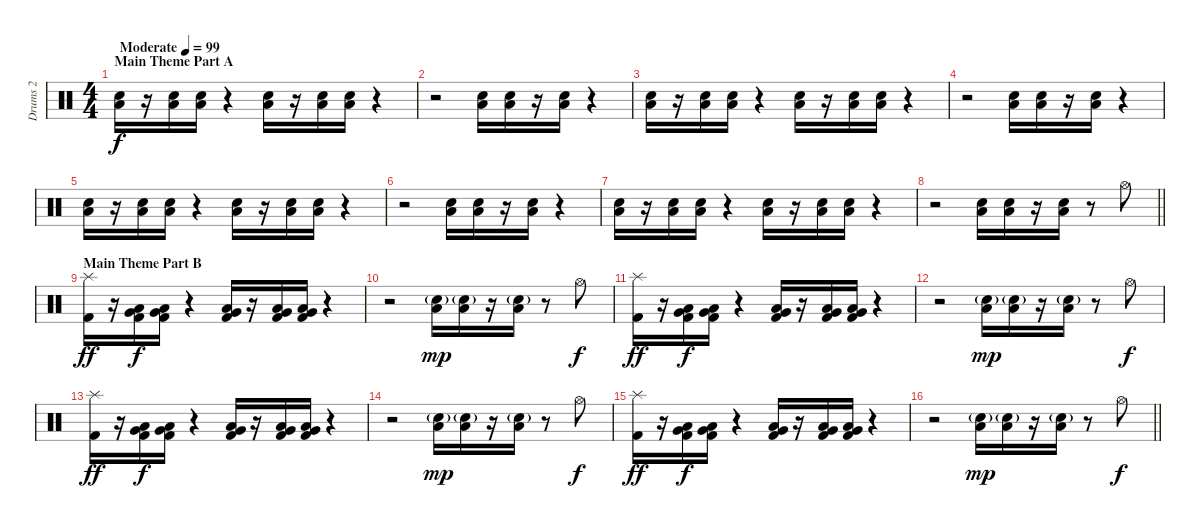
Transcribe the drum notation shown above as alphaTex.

\track ("Drums 2" "Drums 2") {instrument percussion}
\staff {score}
\articulation defaults
\ts (4 4)
\section ("" "Main Theme Part A")
\tempo (99 "Moderate")
\clef neutral
\ks c
("Low Floor Tom (hit)" "Electric Snare (hit)").16{dy f} r.16 ("Low Floor Tom (hit)" "Electric Snare (hit)").16 ("Low Floor Tom (hit)" "Electric Snare (hit)").16 r.4 ("Low Floor Tom (hit)" "Electric Snare (hit)").16 r.16 ("Low Floor Tom (hit)" "Electric Snare (hit)").16 ("Low Floor Tom (hit)" "Electric Snare (hit)").16 r.4 |
r.2 ("Low Floor Tom (hit)" "Electric Snare (hit)").16 ("Low Floor Tom (hit)" "Electric Snare (hit)").16 r.16 ("Low Floor Tom (hit)" "Electric Snare (hit)").16 r.4 |
("Low Floor Tom (hit)" "Electric Snare (hit)").16 r.16 ("Low Floor Tom (hit)" "Electric Snare (hit)").16 ("Low Floor Tom (hit)" "Electric Snare (hit)").16 r.4 ("Low Floor Tom (hit)" "Electric Snare (hit)").16 r.16 ("Low Floor Tom (hit)" "Electric Snare (hit)").16 ("Low Floor Tom (hit)" "Electric Snare (hit)").16 r.4 |
r.2 ("Low Floor Tom (hit)" "Electric Snare (hit)").16 ("Low Floor Tom (hit)" "Electric Snare (hit)").16 r.16 ("Low Floor Tom (hit)" "Electric Snare (hit)").16 r.4 |
("Low Floor Tom (hit)" "Electric Snare (hit)").16 r.16 ("Low Floor Tom (hit)" "Electric Snare (hit)").16 ("Low Floor Tom (hit)" "Electric Snare (hit)").16 r.4 ("Low Floor Tom (hit)" "Electric Snare (hit)").16 r.16 ("Low Floor Tom (hit)" "Electric Snare (hit)").16 ("Low Floor Tom (hit)" "Electric Snare (hit)").16 r.4 |
r.2 ("Low Floor Tom (hit)" "Electric Snare (hit)").16 ("Low Floor Tom (hit)" "Electric Snare (hit)").16 r.16 ("Low Floor Tom (hit)" "Electric Snare (hit)").16 r.4 |
("Low Floor Tom (hit)" "Electric Snare (hit)").16 r.16 ("Low Floor Tom (hit)" "Electric Snare (hit)").16 ("Low Floor Tom (hit)" "Electric Snare (hit)").16 r.4 ("Low Floor Tom (hit)" "Electric Snare (hit)").16 r.16 ("Low Floor Tom (hit)" "Electric Snare (hit)").16 ("Low Floor Tom (hit)" "Electric Snare (hit)").16 r.4 |
\barLineRight lightlight
r.2 ("Low Floor Tom (hit)" "Electric Snare (hit)").16 ("Low Floor Tom (hit)" "Electric Snare (hit)").16 r.16 ("Low Floor Tom (hit)" "Electric Snare (hit)").16 r.8 "Hi-Hat (open)".8 |
\section ("" "Main Theme Part B")
("Splash (hit)" "Kick (hit) 2").16{dy ff} r.16 ("Very Low Tom (hit)" "Low Floor Tom (hit)" "Kick (hit) 2").16{dy f} ("Very Low Tom (hit)" "Low Floor Tom (hit)" "Kick (hit) 2").16 r.4 ("Very Low Tom (hit)" "Low Floor Tom (hit)" "Kick (hit) 2").16 r.16 ("Very Low Tom (hit)" "Low Floor Tom (hit)" "Kick (hit) 2").16 ("Very Low Tom (hit)" "Low Floor Tom (hit)" "Kick (hit) 2").16 r.4 |
r.2 ("Low Floor Tom (hit)" "Electric Snare (hit)"{g}).16{dy mp} ("Low Floor Tom (hit)" "Electric Snare (hit)"{g}).16 r.16 ("Low Floor Tom (hit)" "Electric Snare (hit)"{g}).16 r.8 "Hi-Hat (open)".8{dy f} |
("Splash (hit)" "Kick (hit) 2").16{dy ff} r.16 ("Very Low Tom (hit)" "Low Floor Tom (hit)" "Kick (hit) 2").16{dy f} ("Very Low Tom (hit)" "Low Floor Tom (hit)" "Kick (hit) 2").16 r.4 ("Very Low Tom (hit)" "Low Floor Tom (hit)" "Kick (hit) 2").16 r.16 ("Very Low Tom (hit)" "Low Floor Tom (hit)" "Kick (hit) 2").16 ("Very Low Tom (hit)" "Low Floor Tom (hit)" "Kick (hit) 2").16 r.4 |
r.2 ("Low Floor Tom (hit)" "Electric Snare (hit)"{g}).16{dy mp} ("Low Floor Tom (hit)" "Electric Snare (hit)"{g}).16 r.16 ("Low Floor Tom (hit)" "Electric Snare (hit)"{g}).16 r.8 "Hi-Hat (open)".8{dy f} |
("Splash (hit)" "Kick (hit) 2").16{dy ff} r.16 ("Very Low Tom (hit)" "Low Floor Tom (hit)" "Kick (hit) 2").16{dy f} ("Very Low Tom (hit)" "Low Floor Tom (hit)" "Kick (hit) 2").16 r.4 ("Very Low Tom (hit)" "Low Floor Tom (hit)" "Kick (hit) 2").16 r.16 ("Very Low Tom (hit)" "Low Floor Tom (hit)" "Kick (hit) 2").16 ("Very Low Tom (hit)" "Low Floor Tom (hit)" "Kick (hit) 2").16 r.4 |
r.2 ("Low Floor Tom (hit)" "Electric Snare (hit)"{g}).16{dy mp} ("Low Floor Tom (hit)" "Electric Snare (hit)"{g}).16 r.16 ("Low Floor Tom (hit)" "Electric Snare (hit)"{g}).16 r.8 "Hi-Hat (open)".8{dy f} |
("Splash (hit)" "Kick (hit) 2").16{dy ff} r.16 ("Very Low Tom (hit)" "Low Floor Tom (hit)" "Kick (hit) 2").16{dy f} ("Very Low Tom (hit)" "Low Floor Tom (hit)" "Kick (hit) 2").16 r.4 ("Very Low Tom (hit)" "Low Floor Tom (hit)" "Kick (hit) 2").16 r.16 ("Very Low Tom (hit)" "Low Floor Tom (hit)" "Kick (hit) 2").16 ("Very Low Tom (hit)" "Low Floor Tom (hit)" "Kick (hit) 2").16 r.4 |
\barLineRight lightlight
r.2 ("Low Floor Tom (hit)" "Electric Snare (hit)"{g}).16{dy mp} ("Low Floor Tom (hit)" "Electric Snare (hit)"{g}).16 r.16 ("Low Floor Tom (hit)" "Electric Snare (hit)"{g}).16 r.8 "Hi-Hat (open)".8{dy f}
